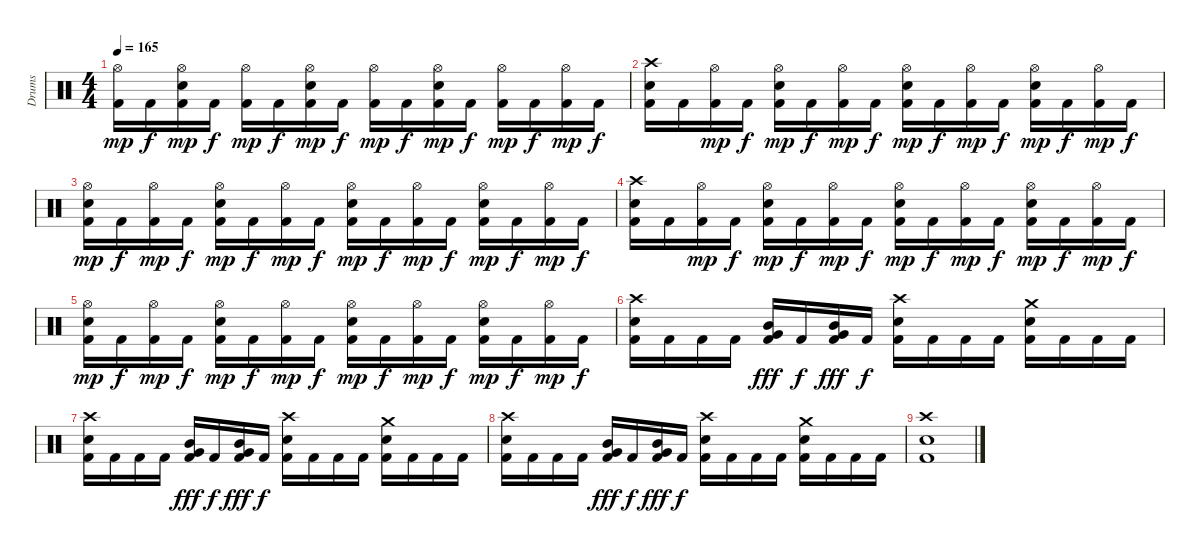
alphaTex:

\track ("Drums" "Drums") {instrument percussion}
\staff {score}
\articulation defaults
\ts (4 4)
\tempo 165
\clef neutral
\ks c
("Hi-Hat (open)" "Kick (hit) 2").16{dy mp} "Kick (hit) 2".16{dy f} ("Hi-Hat (open)" "Snare (hit) 2" "Kick (hit) 2").16{dy mp} "Kick (hit) 2".16{dy f} ("Hi-Hat (open)" "Kick (hit) 2").16{dy mp} "Kick (hit) 2".16{dy f} ("Hi-Hat (open)" "Snare (hit) 2" "Kick (hit) 2").16{dy mp} "Kick (hit) 2".16{dy f} ("Hi-Hat (open)" "Kick (hit) 2").16{dy mp} "Kick (hit) 2".16{dy f} ("Hi-Hat (open)" "Snare (hit) 2" "Kick (hit) 2").16{dy mp} "Kick (hit) 2".16{dy f} ("Hi-Hat (open)" "Kick (hit) 2").16{dy mp} "Kick (hit) 2".16{dy f} ("Hi-Hat (open)" "Kick (hit) 2").16{dy mp} "Kick (hit) 2".16{dy f} |
("Crash high (hit)" "Snare (hit) 2" "Kick (hit) 2").16 "Kick (hit) 2".16 ("Hi-Hat (open)" "Kick (hit) 2").16{dy mp} "Kick (hit) 2".16{dy f} ("Hi-Hat (open)" "Snare (hit) 2" "Kick (hit) 2").16{dy mp} "Kick (hit) 2".16{dy f} ("Hi-Hat (open)" "Kick (hit) 2").16{dy mp} "Kick (hit) 2".16{dy f} ("Hi-Hat (open)" "Snare (hit) 2" "Kick (hit) 2").16{dy mp} "Kick (hit) 2".16{dy f} ("Hi-Hat (open)" "Kick (hit) 2").16{dy mp} "Kick (hit) 2".16{dy f} ("Hi-Hat (open)" "Snare (hit) 2" "Kick (hit) 2").16{dy mp} "Kick (hit) 2".16{dy f} ("Hi-Hat (open)" "Kick (hit) 2").16{dy mp} "Kick (hit) 2".16{dy f} |
("Hi-Hat (open)" "Snare (hit) 2" "Kick (hit) 2").16{dy mp} "Kick (hit) 2".16{dy f} ("Hi-Hat (open)" "Kick (hit) 2").16{dy mp} "Kick (hit) 2".16{dy f} ("Hi-Hat (open)" "Snare (hit) 2" "Kick (hit) 2").16{dy mp} "Kick (hit) 2".16{dy f} ("Hi-Hat (open)" "Kick (hit) 2").16{dy mp} "Kick (hit) 2".16{dy f} ("Hi-Hat (open)" "Snare (hit) 2" "Kick (hit) 2").16{dy mp} "Kick (hit) 2".16{dy f} ("Hi-Hat (open)" "Kick (hit) 2").16{dy mp} "Kick (hit) 2".16{dy f} ("Hi-Hat (open)" "Snare (hit) 2" "Kick (hit) 2").16{dy mp} "Kick (hit) 2".16{dy f} ("Hi-Hat (open)" "Kick (hit) 2").16{dy mp} "Kick (hit) 2".16{dy f} |
("Crash high (hit)" "Snare (hit) 2" "Kick (hit) 2").16 "Kick (hit) 2".16 ("Hi-Hat (open)" "Kick (hit) 2").16{dy mp} "Kick (hit) 2".16{dy f} ("Hi-Hat (open)" "Snare (hit) 2" "Kick (hit) 2").16{dy mp} "Kick (hit) 2".16{dy f} ("Hi-Hat (open)" "Kick (hit) 2").16{dy mp} "Kick (hit) 2".16{dy f} ("Hi-Hat (open)" "Snare (hit) 2" "Kick (hit) 2").16{dy mp} "Kick (hit) 2".16{dy f} ("Hi-Hat (open)" "Kick (hit) 2").16{dy mp} "Kick (hit) 2".16{dy f} ("Hi-Hat (open)" "Snare (hit) 2" "Kick (hit) 2").16{dy mp} "Kick (hit) 2".16{dy f} ("Hi-Hat (open)" "Kick (hit) 2").16{dy mp} "Kick (hit) 2".16{dy f} |
("Hi-Hat (open)" "Snare (hit) 2" "Kick (hit) 2").16{dy mp} "Kick (hit) 2".16{dy f} ("Hi-Hat (open)" "Kick (hit) 2").16{dy mp} "Kick (hit) 2".16{dy f} ("Hi-Hat (open)" "Snare (hit) 2" "Kick (hit) 2").16{dy mp} "Kick (hit) 2".16{dy f} ("Hi-Hat (open)" "Kick (hit) 2").16{dy mp} "Kick (hit) 2".16{dy f} ("Hi-Hat (open)" "Snare (hit) 2" "Kick (hit) 2").16{dy mp} "Kick (hit) 2".16{dy f} ("Hi-Hat (open)" "Kick (hit) 2").16{dy mp} "Kick (hit) 2".16{dy f} ("Hi-Hat (open)" "Snare (hit) 2" "Kick (hit) 2").16{dy mp} "Kick (hit) 2".16{dy f} ("Hi-Hat (open)" "Kick (hit) 2").16{dy mp} "Kick (hit) 2".16{dy f} |
("Crash high (hit)" "Snare (hit) 2" "Kick (hit) 2").16 "Kick (hit) 2".16 "Kick (hit) 2".16 "Kick (hit) 2".16 ("Mid Tom (hit)" "Very Low Tom (hit)" "Kick (hit) 2").16{dy fff} "Kick (hit) 2".16{dy f} ("Mid Tom (hit)" "Very Low Tom (hit)" "Kick (hit) 2").16{dy fff} "Kick (hit) 2".16{dy f} ("Crash high (hit)" "Snare (hit) 2" "Kick (hit) 2").16 "Kick (hit) 2".16 "Kick (hit) 2".16 "Kick (hit) 2".16 ("Crash medium (hit)" "Snare (hit) 2" "Kick (hit) 2").16 "Kick (hit) 2".16 "Kick (hit) 2".16 "Kick (hit) 2".16 |
("Crash high (hit)" "Snare (hit) 2" "Kick (hit) 2").16 "Kick (hit) 2".16 "Kick (hit) 2".16 "Kick (hit) 2".16 ("Mid Tom (hit)" "Very Low Tom (hit)" "Kick (hit) 2").16{dy fff} "Kick (hit) 2".16{dy f} ("Mid Tom (hit)" "Very Low Tom (hit)" "Kick (hit) 2").16{dy fff} "Kick (hit) 2".16{dy f} ("Crash high (hit)" "Snare (hit) 2" "Kick (hit) 2").16 "Kick (hit) 2".16 "Kick (hit) 2".16 "Kick (hit) 2".16 ("Crash medium (hit)" "Snare (hit) 2" "Kick (hit) 2").16 "Kick (hit) 2".16 "Kick (hit) 2".16 "Kick (hit) 2".16 |
("Crash high (hit)" "Snare (hit) 2" "Kick (hit) 2").16 "Kick (hit) 2".16 "Kick (hit) 2".16 "Kick (hit) 2".16 ("Mid Tom (hit)" "Very Low Tom (hit)" "Kick (hit) 2").16{dy fff} "Kick (hit) 2".16{dy f} ("Mid Tom (hit)" "Very Low Tom (hit)" "Kick (hit) 2").16{dy fff} "Kick (hit) 2".16{dy f} ("Crash high (hit)" "Snare (hit) 2" "Kick (hit) 2").16 "Kick (hit) 2".16 "Kick (hit) 2".16 "Kick (hit) 2".16 ("Crash medium (hit)" "Snare (hit) 2" "Kick (hit) 2").16 "Kick (hit) 2".16 "Kick (hit) 2".16 "Kick (hit) 2".16 |
("Crash high (hit)" "Snare (hit) 2" "Kick (hit) 2").1
